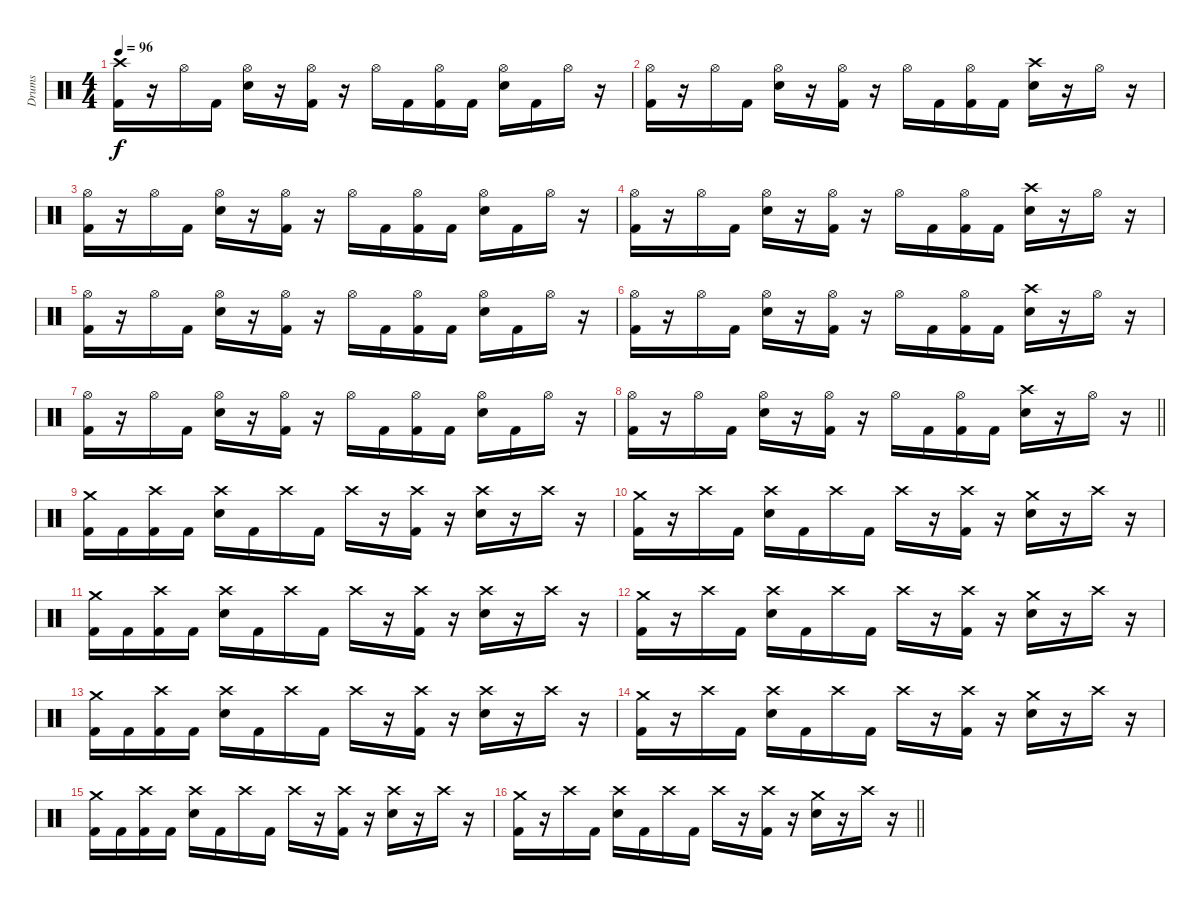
\track ("Drums" "Drums") {instrument percussion}
\staff {score}
\articulation defaults
\ts (4 4)
\tempo 96
\clef neutral
\ks c
("Crash high (hit)" "Kick (hit) 2").16{dy f} r.16 "Hi-Hat (open)".16 "Kick (hit) 2".16 ("Hi-Hat (open)" "Electric Snare (hit)").16 r.16 ("Hi-Hat (open)" "Kick (hit) 2").16 r.16 "Hi-Hat (open)".16 "Kick (hit) 2".16 ("Hi-Hat (open)" "Kick (hit) 2").16 "Kick (hit) 2".16 ("Hi-Hat (open)" "Electric Snare (hit)").16 "Kick (hit) 2".16 "Hi-Hat (open)".16 r.16 |
("Hi-Hat (open)" "Kick (hit) 2").16 r.16 "Hi-Hat (open)".16 "Kick (hit) 2".16 ("Hi-Hat (open)" "Electric Snare (hit)").16 r.16 ("Hi-Hat (open)" "Kick (hit) 2").16 r.16 "Hi-Hat (open)".16 "Kick (hit) 2".16 ("Hi-Hat (open)" "Kick (hit) 2").16 "Kick (hit) 2".16 ("Crash high (hit)" "Electric Snare (hit)").16 r.16 "Hi-Hat (open)".16 r.16 |
("Hi-Hat (open)" "Kick (hit) 2").16 r.16 "Hi-Hat (open)".16 "Kick (hit) 2".16 ("Hi-Hat (open)" "Electric Snare (hit)").16 r.16 ("Hi-Hat (open)" "Kick (hit) 2").16 r.16 "Hi-Hat (open)".16 "Kick (hit) 2".16 ("Hi-Hat (open)" "Kick (hit) 2").16 "Kick (hit) 2".16 ("Hi-Hat (open)" "Electric Snare (hit)").16 "Kick (hit) 2".16 "Hi-Hat (open)".16 r.16 |
("Hi-Hat (open)" "Kick (hit) 2").16 r.16 "Hi-Hat (open)".16 "Kick (hit) 2".16 ("Hi-Hat (open)" "Electric Snare (hit)").16 r.16 ("Hi-Hat (open)" "Kick (hit) 2").16 r.16 "Hi-Hat (open)".16 "Kick (hit) 2".16 ("Hi-Hat (open)" "Kick (hit) 2").16 "Kick (hit) 2".16 ("Crash high (hit)" "Electric Snare (hit)").16 r.16 "Hi-Hat (open)".16 r.16 |
("Hi-Hat (open)" "Kick (hit) 2").16 r.16 "Hi-Hat (open)".16 "Kick (hit) 2".16 ("Hi-Hat (open)" "Electric Snare (hit)").16 r.16 ("Hi-Hat (open)" "Kick (hit) 2").16 r.16 "Hi-Hat (open)".16 "Kick (hit) 2".16 ("Hi-Hat (open)" "Kick (hit) 2").16 "Kick (hit) 2".16 ("Hi-Hat (open)" "Electric Snare (hit)").16 "Kick (hit) 2".16 "Hi-Hat (open)".16 r.16 |
("Hi-Hat (open)" "Kick (hit) 2").16 r.16 "Hi-Hat (open)".16 "Kick (hit) 2".16 ("Hi-Hat (open)" "Electric Snare (hit)").16 r.16 ("Hi-Hat (open)" "Kick (hit) 2").16 r.16 "Hi-Hat (open)".16 "Kick (hit) 2".16 ("Hi-Hat (open)" "Kick (hit) 2").16 "Kick (hit) 2".16 ("Crash high (hit)" "Electric Snare (hit)").16 r.16 "Hi-Hat (open)".16 r.16 |
("Hi-Hat (open)" "Kick (hit) 2").16 r.16 "Hi-Hat (open)".16 "Kick (hit) 2".16 ("Hi-Hat (open)" "Electric Snare (hit)").16 r.16 ("Hi-Hat (open)" "Kick (hit) 2").16 r.16 "Hi-Hat (open)".16 "Kick (hit) 2".16 ("Hi-Hat (open)" "Kick (hit) 2").16 "Kick (hit) 2".16 ("Hi-Hat (open)" "Electric Snare (hit)").16 "Kick (hit) 2".16 "Hi-Hat (open)".16 r.16 |
\barLineRight lightlight
("Hi-Hat (open)" "Kick (hit) 2").16 r.16 "Hi-Hat (open)".16 "Kick (hit) 2".16 ("Hi-Hat (open)" "Electric Snare (hit)").16 r.16 ("Hi-Hat (open)" "Kick (hit) 2").16 r.16 "Hi-Hat (open)".16 "Kick (hit) 2".16 ("Hi-Hat (open)" "Kick (hit) 2").16 "Kick (hit) 2".16 ("Crash high (hit)" "Electric Snare (hit)").16 r.16 "Hi-Hat (open)".16 r.16 |
("Kick (hit) 2" "Crash medium (hit)").16 "Kick (hit) 2".16 ("Kick (hit) 2" "Crash high (hit)").16 "Kick (hit) 2".16 ("Electric Snare (hit)" "Crash high (hit)").16 "Kick (hit) 2".16 "Crash high (hit)".16 "Kick (hit) 2".16 "Crash high (hit)".16 r.16 ("Kick (hit) 2" "Crash high (hit)").16 r.16 ("Electric Snare (hit)" "Crash high (hit)").16 r.16 "Crash high (hit)".16 r.16 |
("Kick (hit) 2" "Crash medium (hit)").16 r.16 "Crash high (hit)".16 "Kick (hit) 2".16 ("Electric Snare (hit)" "Crash high (hit)").16 "Kick (hit) 2".16 "Crash high (hit)".16 "Kick (hit) 2".16 "Crash high (hit)".16 r.16 ("Kick (hit) 2" "Crash high (hit)").16 r.16 ("Electric Snare (hit)" "Crash medium (hit)").16 r.16 "Crash high (hit)".16 r.16 |
("Kick (hit) 2" "Crash medium (hit)").16 "Kick (hit) 2".16 ("Kick (hit) 2" "Crash high (hit)").16 "Kick (hit) 2".16 ("Electric Snare (hit)" "Crash high (hit)").16 "Kick (hit) 2".16 "Crash high (hit)".16 "Kick (hit) 2".16 "Crash high (hit)".16 r.16 ("Kick (hit) 2" "Crash high (hit)").16 r.16 ("Electric Snare (hit)" "Crash high (hit)").16 r.16 "Crash high (hit)".16 r.16 |
("Kick (hit) 2" "Crash medium (hit)").16 r.16 "Crash high (hit)".16 "Kick (hit) 2".16 ("Electric Snare (hit)" "Crash high (hit)").16 "Kick (hit) 2".16 "Crash high (hit)".16 "Kick (hit) 2".16 "Crash high (hit)".16 r.16 ("Kick (hit) 2" "Crash high (hit)").16 r.16 ("Electric Snare (hit)" "Crash medium (hit)").16 r.16 "Crash high (hit)".16 r.16 |
("Kick (hit) 2" "Crash medium (hit)").16 "Kick (hit) 2".16 ("Kick (hit) 2" "Crash high (hit)").16 "Kick (hit) 2".16 ("Electric Snare (hit)" "Crash high (hit)").16 "Kick (hit) 2".16 "Crash high (hit)".16 "Kick (hit) 2".16 "Crash high (hit)".16 r.16 ("Kick (hit) 2" "Crash high (hit)").16 r.16 ("Electric Snare (hit)" "Crash high (hit)").16 r.16 "Crash high (hit)".16 r.16 |
("Kick (hit) 2" "Crash medium (hit)").16 r.16 "Crash high (hit)".16 "Kick (hit) 2".16 ("Electric Snare (hit)" "Crash high (hit)").16 "Kick (hit) 2".16 "Crash high (hit)".16 "Kick (hit) 2".16 "Crash high (hit)".16 r.16 ("Kick (hit) 2" "Crash high (hit)").16 r.16 ("Electric Snare (hit)" "Crash medium (hit)").16 r.16 "Crash high (hit)".16 r.16 |
("Kick (hit) 2" "Crash medium (hit)").16 "Kick (hit) 2".16 ("Kick (hit) 2" "Crash high (hit)").16 "Kick (hit) 2".16 ("Electric Snare (hit)" "Crash high (hit)").16 "Kick (hit) 2".16 "Crash high (hit)".16 "Kick (hit) 2".16 "Crash high (hit)".16 r.16 ("Kick (hit) 2" "Crash high (hit)").16 r.16 ("Electric Snare (hit)" "Crash high (hit)").16 r.16 "Crash high (hit)".16 r.16 |
\barLineRight lightlight
("Kick (hit) 2" "Crash medium (hit)").16 r.16 "Crash high (hit)".16 "Kick (hit) 2".16 ("Electric Snare (hit)" "Crash high (hit)").16 "Kick (hit) 2".16 "Crash high (hit)".16 "Kick (hit) 2".16 "Crash high (hit)".16 r.16 ("Kick (hit) 2" "Crash high (hit)").16 r.16 ("Electric Snare (hit)" "Crash medium (hit)").16 r.16 "Crash high (hit)".16 r.16
